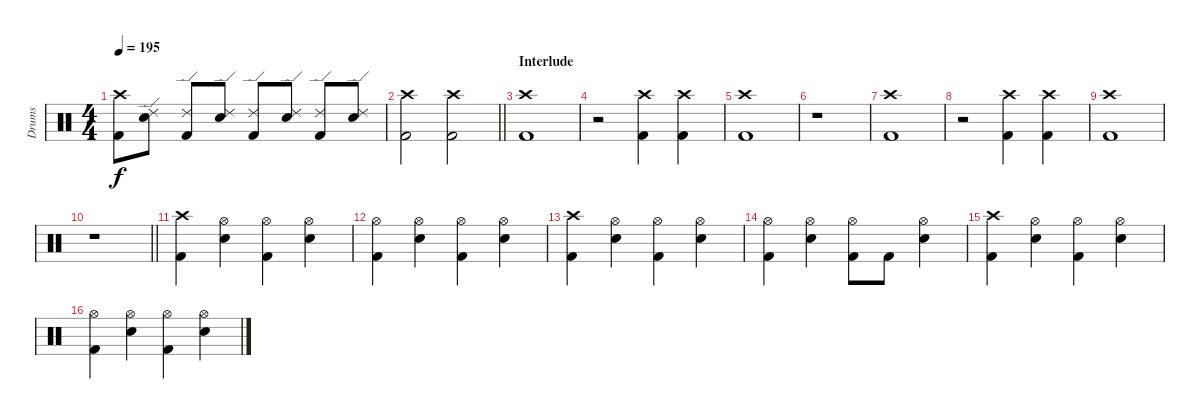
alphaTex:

\track ("Drums" "Drums") {instrument percussion}
\staff {score}
\articulation defaults
\ts (4 4)
\tempo 195
\clef neutral
\ks c
("Crash high (hit)" "Kick (hit) 2").8{dy f} ("Ride (edge) 2" "Snare (hit) 2").8 ("Ride (edge) 2" "Kick (hit) 2").8 ("Ride (edge) 2" "Snare (hit) 2").8 ("Ride (edge) 2" "Kick (hit) 2").8 ("Ride (edge) 2" "Snare (hit) 2").8 ("Ride (edge) 2" "Kick (hit) 2").8 ("Ride (edge) 2" "Snare (hit) 2").8 |
\barLineRight lightlight
("Crash high (hit)" "Kick (hit) 2").2 ("Crash high (hit)" "Kick (hit) 2").2 |
\section ("" "Interlude")
("Crash high (hit)" "Kick (hit) 2").1 |
r.2 ("Crash high (hit)" "Kick (hit) 2").4 ("Crash high (hit)" "Kick (hit) 2").4 |
("Crash high (hit)" "Kick (hit) 2").1 |
r.1 |
("Crash high (hit)" "Kick (hit) 2").1 |
r.2 ("Crash high (hit)" "Kick (hit) 2").4 ("Crash high (hit)" "Kick (hit) 2").4 |
("Crash high (hit)" "Kick (hit) 2").1 |
\barLineRight lightlight
r.1 |
("Crash high (hit)" "Kick (hit) 2").4 ("Hi-Hat (open)" "Snare (hit) 2").4 ("Hi-Hat (open)" "Kick (hit) 2").4 ("Hi-Hat (open)" "Snare (hit) 2").4 |
("Hi-Hat (open)" "Kick (hit) 2").4 ("Hi-Hat (open)" "Snare (hit) 2").4 ("Hi-Hat (open)" "Kick (hit) 2").4 ("Hi-Hat (open)" "Snare (hit) 2").4 |
("Crash high (hit)" "Kick (hit) 2").4 ("Hi-Hat (open)" "Snare (hit) 2").4 ("Hi-Hat (open)" "Kick (hit) 2").4 ("Hi-Hat (open)" "Snare (hit) 2").4 |
("Hi-Hat (open)" "Kick (hit) 2").4 ("Hi-Hat (open)" "Snare (hit) 2").4 ("Hi-Hat (open)" "Kick (hit) 2").8 "Kick (hit) 2".8 ("Hi-Hat (open)" "Snare (hit) 2").4 |
("Crash high (hit)" "Kick (hit) 2").4 ("Hi-Hat (open)" "Snare (hit) 2").4 ("Hi-Hat (open)" "Kick (hit) 2").4 ("Hi-Hat (open)" "Snare (hit) 2").4 |
("Hi-Hat (open)" "Kick (hit) 2").4 ("Hi-Hat (open)" "Snare (hit) 2").4 ("Hi-Hat (open)" "Kick (hit) 2").4 ("Hi-Hat (open)" "Snare (hit) 2").4
